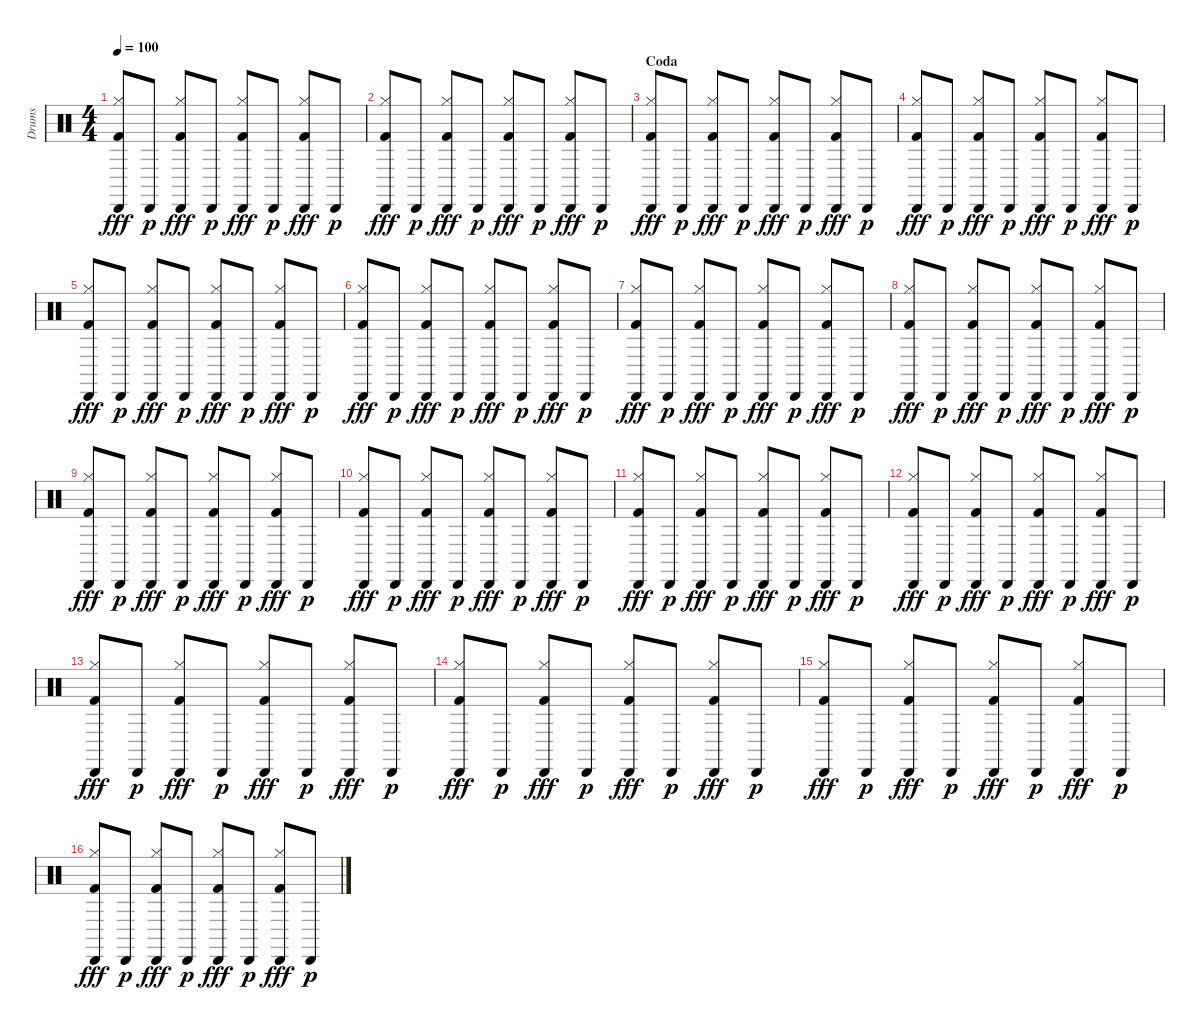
\track ("Drums" "Drums") {instrument percussion}
\staff {score}
\articulation defaults
\ts (4 4)
\tempo 100
\clef neutral
\ks c
("Cabasa (hit)" "Hi-Hat (closed)" "Kick (hit) 2").8{dy fff} "Cabasa (hit)".8{dy p} ("Cabasa (hit)" "Hi-Hat (closed)" "Kick (hit) 2").8{dy fff} "Cabasa (hit)".8{dy p} ("Cabasa (hit)" "Hi-Hat (closed)" "Kick (hit) 2").8{dy fff} "Cabasa (hit)".8{dy p} ("Cabasa (hit)" "Hi-Hat (closed)" "Kick (hit) 2").8{dy fff} "Cabasa (hit)".8{dy p} |
("Cabasa (hit)" "Hi-Hat (closed)" "Kick (hit) 2").8{dy fff} "Cabasa (hit)".8{dy p} ("Cabasa (hit)" "Hi-Hat (closed)" "Kick (hit) 2").8{dy fff} "Cabasa (hit)".8{dy p} ("Cabasa (hit)" "Hi-Hat (closed)" "Kick (hit) 2").8{dy fff} "Cabasa (hit)".8{dy p} ("Cabasa (hit)" "Hi-Hat (closed)" "Kick (hit) 2").8{dy fff} "Cabasa (hit)".8{dy p} |
\section ("" "Coda")
("Cabasa (hit)" "Hi-Hat (closed)" "Kick (hit) 2").8{dy fff} "Cabasa (hit)".8{dy p} ("Cabasa (hit)" "Hi-Hat (closed)" "Kick (hit) 2").8{dy fff} "Cabasa (hit)".8{dy p} ("Cabasa (hit)" "Hi-Hat (closed)" "Kick (hit) 2").8{dy fff} "Cabasa (hit)".8{dy p} ("Cabasa (hit)" "Hi-Hat (closed)" "Kick (hit) 2").8{dy fff} "Cabasa (hit)".8{dy p} |
("Cabasa (hit)" "Hi-Hat (closed)" "Kick (hit) 2").8{dy fff} "Cabasa (hit)".8{dy p} ("Cabasa (hit)" "Hi-Hat (closed)" "Kick (hit) 2").8{dy fff} "Cabasa (hit)".8{dy p} ("Cabasa (hit)" "Hi-Hat (closed)" "Kick (hit) 2").8{dy fff} "Cabasa (hit)".8{dy p} ("Cabasa (hit)" "Hi-Hat (closed)" "Kick (hit) 2").8{dy fff} "Cabasa (hit)".8{dy p} |
("Cabasa (hit)" "Hi-Hat (closed)" "Kick (hit) 2").8{dy fff} "Cabasa (hit)".8{dy p} ("Cabasa (hit)" "Hi-Hat (closed)" "Kick (hit) 2").8{dy fff} "Cabasa (hit)".8{dy p} ("Cabasa (hit)" "Hi-Hat (closed)" "Kick (hit) 2").8{dy fff} "Cabasa (hit)".8{dy p} ("Cabasa (hit)" "Hi-Hat (closed)" "Kick (hit) 2").8{dy fff} "Cabasa (hit)".8{dy p} |
("Cabasa (hit)" "Hi-Hat (closed)" "Kick (hit) 2").8{dy fff} "Cabasa (hit)".8{dy p} ("Cabasa (hit)" "Hi-Hat (closed)" "Kick (hit) 2").8{dy fff} "Cabasa (hit)".8{dy p} ("Cabasa (hit)" "Hi-Hat (closed)" "Kick (hit) 2").8{dy fff} "Cabasa (hit)".8{dy p} ("Cabasa (hit)" "Hi-Hat (closed)" "Kick (hit) 2").8{dy fff} "Cabasa (hit)".8{dy p} |
("Cabasa (hit)" "Hi-Hat (closed)" "Kick (hit) 2").8{dy fff} "Cabasa (hit)".8{dy p} ("Cabasa (hit)" "Hi-Hat (closed)" "Kick (hit) 2").8{dy fff} "Cabasa (hit)".8{dy p} ("Cabasa (hit)" "Hi-Hat (closed)" "Kick (hit) 2").8{dy fff} "Cabasa (hit)".8{dy p} ("Cabasa (hit)" "Hi-Hat (closed)" "Kick (hit) 2").8{dy fff} "Cabasa (hit)".8{dy p} |
("Cabasa (hit)" "Hi-Hat (closed)" "Kick (hit) 2").8{dy fff} "Cabasa (hit)".8{dy p} ("Cabasa (hit)" "Hi-Hat (closed)" "Kick (hit) 2").8{dy fff} "Cabasa (hit)".8{dy p} ("Cabasa (hit)" "Hi-Hat (closed)" "Kick (hit) 2").8{dy fff} "Cabasa (hit)".8{dy p} ("Cabasa (hit)" "Hi-Hat (closed)" "Kick (hit) 2").8{dy fff} "Cabasa (hit)".8{dy p} |
("Cabasa (hit)" "Hi-Hat (closed)" "Kick (hit) 2").8{dy fff} "Cabasa (hit)".8{dy p} ("Cabasa (hit)" "Hi-Hat (closed)" "Kick (hit) 2").8{dy fff} "Cabasa (hit)".8{dy p} ("Cabasa (hit)" "Hi-Hat (closed)" "Kick (hit) 2").8{dy fff} "Cabasa (hit)".8{dy p} ("Cabasa (hit)" "Hi-Hat (closed)" "Kick (hit) 2").8{dy fff} "Cabasa (hit)".8{dy p} |
("Cabasa (hit)" "Hi-Hat (closed)" "Kick (hit) 2").8{dy fff} "Cabasa (hit)".8{dy p} ("Cabasa (hit)" "Hi-Hat (closed)" "Kick (hit) 2").8{dy fff} "Cabasa (hit)".8{dy p} ("Cabasa (hit)" "Hi-Hat (closed)" "Kick (hit) 2").8{dy fff} "Cabasa (hit)".8{dy p} ("Cabasa (hit)" "Hi-Hat (closed)" "Kick (hit) 2").8{dy fff} "Cabasa (hit)".8{dy p} |
("Cabasa (hit)" "Hi-Hat (closed)" "Kick (hit) 2").8{dy fff} "Cabasa (hit)".8{dy p} ("Cabasa (hit)" "Hi-Hat (closed)" "Kick (hit) 2").8{dy fff} "Cabasa (hit)".8{dy p} ("Cabasa (hit)" "Hi-Hat (closed)" "Kick (hit) 2").8{dy fff} "Cabasa (hit)".8{dy p} ("Cabasa (hit)" "Hi-Hat (closed)" "Kick (hit) 2").8{dy fff} "Cabasa (hit)".8{dy p} |
("Cabasa (hit)" "Hi-Hat (closed)" "Kick (hit) 2").8{dy fff} "Cabasa (hit)".8{dy p} ("Cabasa (hit)" "Hi-Hat (closed)" "Kick (hit) 2").8{dy fff} "Cabasa (hit)".8{dy p} ("Cabasa (hit)" "Hi-Hat (closed)" "Kick (hit) 2").8{dy fff} "Cabasa (hit)".8{dy p} ("Cabasa (hit)" "Hi-Hat (closed)" "Kick (hit) 2").8{dy fff} "Cabasa (hit)".8{dy p} |
("Cabasa (hit)" "Hi-Hat (closed)" "Kick (hit) 2").8{dy fff} "Cabasa (hit)".8{dy p} ("Cabasa (hit)" "Hi-Hat (closed)" "Kick (hit) 2").8{dy fff} "Cabasa (hit)".8{dy p} ("Cabasa (hit)" "Hi-Hat (closed)" "Kick (hit) 2").8{dy fff} "Cabasa (hit)".8{dy p} ("Cabasa (hit)" "Hi-Hat (closed)" "Kick (hit) 2").8{dy fff} "Cabasa (hit)".8{dy p} |
("Cabasa (hit)" "Hi-Hat (closed)" "Kick (hit) 2").8{dy fff} "Cabasa (hit)".8{dy p} ("Cabasa (hit)" "Hi-Hat (closed)" "Kick (hit) 2").8{dy fff} "Cabasa (hit)".8{dy p} ("Cabasa (hit)" "Hi-Hat (closed)" "Kick (hit) 2").8{dy fff} "Cabasa (hit)".8{dy p} ("Cabasa (hit)" "Hi-Hat (closed)" "Kick (hit) 2").8{dy fff} "Cabasa (hit)".8{dy p} |
("Cabasa (hit)" "Hi-Hat (closed)" "Kick (hit) 2").8{dy fff} "Cabasa (hit)".8{dy p} ("Cabasa (hit)" "Hi-Hat (closed)" "Kick (hit) 2").8{dy fff} "Cabasa (hit)".8{dy p} ("Cabasa (hit)" "Hi-Hat (closed)" "Kick (hit) 2").8{dy fff} "Cabasa (hit)".8{dy p} ("Cabasa (hit)" "Hi-Hat (closed)" "Kick (hit) 2").8{dy fff} "Cabasa (hit)".8{dy p} |
("Cabasa (hit)" "Hi-Hat (closed)" "Kick (hit) 2").8{dy fff} "Cabasa (hit)".8{dy p} ("Cabasa (hit)" "Hi-Hat (closed)" "Kick (hit) 2").8{dy fff} "Cabasa (hit)".8{dy p} ("Cabasa (hit)" "Hi-Hat (closed)" "Kick (hit) 2").8{dy fff} "Cabasa (hit)".8{dy p} ("Cabasa (hit)" "Hi-Hat (closed)" "Kick (hit) 2").8{dy fff} "Cabasa (hit)".8{dy p}
